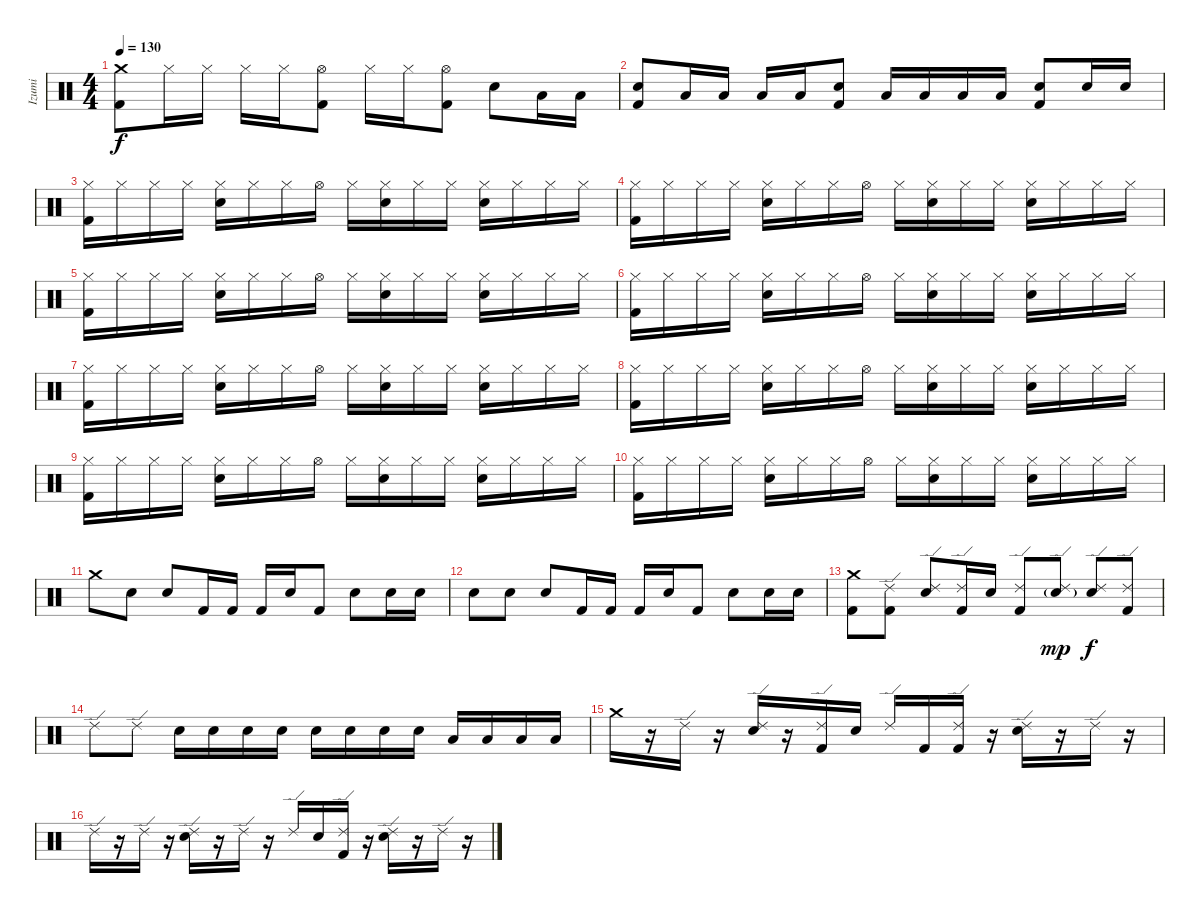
\track ("Izumi" "Izumi") {instrument percussion}
\staff {score}
\articulation defaults
\ts (4 4)
\tempo 130
\clef neutral
\ks c
("Kick (hit) 2" "Crash medium (hit)").8{dy f} "Hi-Hat (closed)".16 "Hi-Hat (closed)".16 "Hi-Hat (closed)".16 "Hi-Hat (closed)".16 ("Kick (hit) 2" "Hi-Hat (open)").8 "Hi-Hat (closed)".16 "Hi-Hat (closed)".16 ("Kick (hit) 2" "Hi-Hat (open)").8 "Snare (hit) 2".8 "Low Tom (hit)".16 "Low Tom (hit)".16 |
("Kick (hit) 2" "Snare (hit) 2").8 "Low Tom (hit)".16 "Low Tom (hit)".16 "Low Tom (hit)".16 "Low Tom (hit)".16 ("Kick (hit) 2" "Snare (hit) 2").8 "Low Tom (hit)".16 "Low Tom (hit)".16 "Low Tom (hit)".16 "Low Tom (hit)".16 ("Kick (hit) 2" "Snare (hit) 2").8 "Snare (hit) 2".16 "Snare (hit) 2".16 |
("Kick (hit) 2" "Hi-Hat (closed)").16 "Hi-Hat (closed)".16 "Hi-Hat (closed)".16 "Hi-Hat (closed)".16 ("Snare (hit) 2" "Hi-Hat (closed)").16 "Hi-Hat (closed)".16 "Hi-Hat (closed)".16 "Hi-Hat (open)".16 "Hi-Hat (closed)".16 ("Snare (hit) 2" "Hi-Hat (closed)").16 "Hi-Hat (closed)".16 "Hi-Hat (closed)".16 ("Snare (hit) 2" "Hi-Hat (closed)").16 "Hi-Hat (closed)".16 "Hi-Hat (closed)".16 "Hi-Hat (closed)".16 |
("Kick (hit) 2" "Hi-Hat (closed)").16 "Hi-Hat (closed)".16 "Hi-Hat (closed)".16 "Hi-Hat (closed)".16 ("Snare (hit) 2" "Hi-Hat (closed)").16 "Hi-Hat (closed)".16 "Hi-Hat (closed)".16 "Hi-Hat (open)".16 "Hi-Hat (closed)".16 ("Snare (hit) 2" "Hi-Hat (closed)").16 "Hi-Hat (closed)".16 "Hi-Hat (closed)".16 ("Snare (hit) 2" "Hi-Hat (closed)").16 "Hi-Hat (closed)".16 "Hi-Hat (closed)".16 "Hi-Hat (closed)".16 |
("Kick (hit) 2" "Hi-Hat (closed)").16 "Hi-Hat (closed)".16 "Hi-Hat (closed)".16 "Hi-Hat (closed)".16 ("Snare (hit) 2" "Hi-Hat (closed)").16 "Hi-Hat (closed)".16 "Hi-Hat (closed)".16 "Hi-Hat (open)".16 "Hi-Hat (closed)".16 ("Snare (hit) 2" "Hi-Hat (closed)").16 "Hi-Hat (closed)".16 "Hi-Hat (closed)".16 ("Snare (hit) 2" "Hi-Hat (closed)").16 "Hi-Hat (closed)".16 "Hi-Hat (closed)".16 "Hi-Hat (closed)".16 |
("Kick (hit) 2" "Hi-Hat (closed)").16 "Hi-Hat (closed)".16 "Hi-Hat (closed)".16 "Hi-Hat (closed)".16 ("Snare (hit) 2" "Hi-Hat (closed)").16 "Hi-Hat (closed)".16 "Hi-Hat (closed)".16 "Hi-Hat (open)".16 "Hi-Hat (closed)".16 ("Snare (hit) 2" "Hi-Hat (closed)").16 "Hi-Hat (closed)".16 "Hi-Hat (closed)".16 ("Snare (hit) 2" "Hi-Hat (closed)").16 "Hi-Hat (closed)".16 "Hi-Hat (closed)".16 "Hi-Hat (closed)".16 |
("Kick (hit) 2" "Hi-Hat (closed)").16 "Hi-Hat (closed)".16 "Hi-Hat (closed)".16 "Hi-Hat (closed)".16 ("Snare (hit) 2" "Hi-Hat (closed)").16 "Hi-Hat (closed)".16 "Hi-Hat (closed)".16 "Hi-Hat (open)".16 "Hi-Hat (closed)".16 ("Snare (hit) 2" "Hi-Hat (closed)").16 "Hi-Hat (closed)".16 "Hi-Hat (closed)".16 ("Snare (hit) 2" "Hi-Hat (closed)").16 "Hi-Hat (closed)".16 "Hi-Hat (closed)".16 "Hi-Hat (closed)".16 |
("Kick (hit) 2" "Hi-Hat (closed)").16 "Hi-Hat (closed)".16 "Hi-Hat (closed)".16 "Hi-Hat (closed)".16 ("Snare (hit) 2" "Hi-Hat (closed)").16 "Hi-Hat (closed)".16 "Hi-Hat (closed)".16 "Hi-Hat (open)".16 "Hi-Hat (closed)".16 ("Snare (hit) 2" "Hi-Hat (closed)").16 "Hi-Hat (closed)".16 "Hi-Hat (closed)".16 ("Snare (hit) 2" "Hi-Hat (closed)").16 "Hi-Hat (closed)".16 "Hi-Hat (closed)".16 "Hi-Hat (closed)".16 |
("Kick (hit) 2" "Hi-Hat (closed)").16 "Hi-Hat (closed)".16 "Hi-Hat (closed)".16 "Hi-Hat (closed)".16 ("Snare (hit) 2" "Hi-Hat (closed)").16 "Hi-Hat (closed)".16 "Hi-Hat (closed)".16 "Hi-Hat (open)".16 "Hi-Hat (closed)".16 ("Snare (hit) 2" "Hi-Hat (closed)").16 "Hi-Hat (closed)".16 "Hi-Hat (closed)".16 ("Snare (hit) 2" "Hi-Hat (closed)").16 "Hi-Hat (closed)".16 "Hi-Hat (closed)".16 "Hi-Hat (closed)".16 |
("Kick (hit) 2" "Hi-Hat (closed)").16 "Hi-Hat (closed)".16 "Hi-Hat (closed)".16 "Hi-Hat (closed)".16 ("Snare (hit) 2" "Hi-Hat (closed)").16 "Hi-Hat (closed)".16 "Hi-Hat (closed)".16 "Hi-Hat (open)".16 "Hi-Hat (closed)".16 ("Snare (hit) 2" "Hi-Hat (closed)").16 "Hi-Hat (closed)".16 "Hi-Hat (closed)".16 ("Snare (hit) 2" "Hi-Hat (closed)").16 "Hi-Hat (closed)".16 "Hi-Hat (closed)".16 "Hi-Hat (closed)".16 |
"Crash medium (hit)".8 "Snare (hit) 2".8 "Snare (hit) 2".8 "Kick (hit) 2".16 "Kick (hit) 2".16 "Kick (hit) 2".16 "Snare (hit) 2".16 "Kick (hit) 2".8 "Snare (hit) 2".8 "Snare (hit) 2".16 "Snare (hit) 2".16 |
"Snare (hit) 2".8 "Snare (hit) 2".8 "Snare (hit) 2".8 "Kick (hit) 2".16 "Kick (hit) 2".16 "Kick (hit) 2".16 "Snare (hit) 2".16 "Kick (hit) 2".8 "Snare (hit) 2".8 "Snare (hit) 2".16 "Snare (hit) 2".16 |
("Kick (hit) 2" "Crash medium (hit)").8 ("Kick (hit) 2" "Ride (edge) 2").8 ("Snare (hit) 2" "Ride (edge) 2").8 ("Kick (hit) 2" "Ride (edge) 2").16 "Snare (hit) 2".16 ("Kick (hit) 2" "Ride (edge) 2").8 ("Snare (hit) 2"{g} "Ride (edge) 2").8{dy mp} ("Snare (hit) 2" "Ride (edge) 2").8{dy f} ("Kick (hit) 2" "Ride (edge) 2").8 |
"Ride (edge) 2".8 "Ride (edge) 2".8 "Snare (hit) 2".16 "Snare (hit) 2".16 "Snare (hit) 2".16 "Snare (hit) 2".16 "Snare (hit) 2".16 "Snare (hit) 2".16 "Snare (hit) 2".16 "Snare (hit) 2".16 "Low Tom (hit)".16 "Low Tom (hit)".16 "Low Tom (hit)".16 "Low Tom (hit)".16 |
"Crash medium (hit)".16 r.16 "Ride (edge) 2".16 r.16 ("Snare (hit) 2" "Ride (edge) 2").16 r.16 ("Kick (hit) 2" "Ride (edge) 2").16 "Snare (hit) 2".16 "Ride (edge) 2".16 "Kick (hit) 2".16 ("Kick (hit) 2" "Ride (edge) 2").16 r.16 ("Snare (hit) 2" "Ride (edge) 2").16 r.16 "Ride (edge) 2".16 r.16 |
"Ride (edge) 2".16 r.16 "Ride (edge) 2".16 r.16 ("Snare (hit) 2" "Ride (edge) 2").16 r.16 "Ride (edge) 2".16 r.16 "Ride (edge) 2".16 "Snare (hit) 2".16 ("Kick (hit) 2" "Ride (edge) 2").16 r.16 ("Snare (hit) 2" "Ride (edge) 2").16 r.16 "Ride (edge) 2".16 r.16
